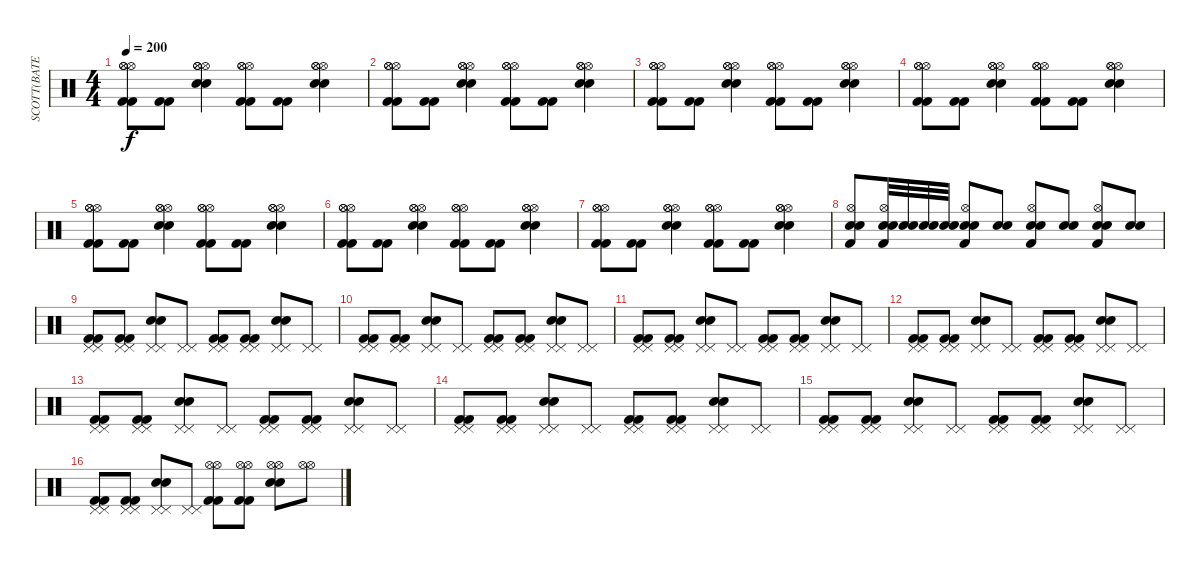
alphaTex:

\track ("SCOTT(BATERIA)" "SCOTT(BATE") {instrument percussion}
\staff {score}
\articulation defaults
\ts (4 4)
\tempo 200
\clef neutral
\ks c
("Kick (hit) 2" "Kick (hit) 2" "Hi-Hat (open)" "Hi-Hat (open)" "Hi-Hat (open)").8{dy f} ("Kick (hit) 2" "Kick (hit) 2").8 ("Snare (hit) 2" "Snare (hit) 2" "Hi-Hat (open)" "Hi-Hat (open)" "Hi-Hat (open)").4 ("Kick (hit) 2" "Kick (hit) 2" "Hi-Hat (open)" "Hi-Hat (open)" "Hi-Hat (open)").8 ("Kick (hit) 2" "Kick (hit) 2").8 ("Snare (hit) 2" "Snare (hit) 2" "Hi-Hat (open)" "Hi-Hat (open)" "Hi-Hat (open)").4 |
("Kick (hit) 2" "Kick (hit) 2" "Hi-Hat (open)" "Hi-Hat (open)" "Hi-Hat (open)").8 ("Kick (hit) 2" "Kick (hit) 2").8 ("Snare (hit) 2" "Snare (hit) 2" "Hi-Hat (open)" "Hi-Hat (open)" "Hi-Hat (open)").4 ("Kick (hit) 2" "Kick (hit) 2" "Hi-Hat (open)" "Hi-Hat (open)" "Hi-Hat (open)").8 ("Kick (hit) 2" "Kick (hit) 2").8 ("Snare (hit) 2" "Snare (hit) 2" "Hi-Hat (open)" "Hi-Hat (open)" "Hi-Hat (open)").4 |
("Kick (hit) 2" "Kick (hit) 2" "Hi-Hat (open)" "Hi-Hat (open)" "Hi-Hat (open)").8 ("Kick (hit) 2" "Kick (hit) 2").8 ("Snare (hit) 2" "Snare (hit) 2" "Hi-Hat (open)" "Hi-Hat (open)" "Hi-Hat (open)").4 ("Kick (hit) 2" "Kick (hit) 2" "Hi-Hat (open)" "Hi-Hat (open)" "Hi-Hat (open)").8 ("Kick (hit) 2" "Kick (hit) 2").8 ("Snare (hit) 2" "Snare (hit) 2" "Hi-Hat (open)" "Hi-Hat (open)" "Hi-Hat (open)").4 |
("Kick (hit) 2" "Kick (hit) 2" "Hi-Hat (open)" "Hi-Hat (open)" "Hi-Hat (open)").8 ("Kick (hit) 2" "Kick (hit) 2").8 ("Snare (hit) 2" "Snare (hit) 2" "Hi-Hat (open)" "Hi-Hat (open)" "Hi-Hat (open)").4 ("Kick (hit) 2" "Kick (hit) 2" "Hi-Hat (open)" "Hi-Hat (open)" "Hi-Hat (open)").8 ("Kick (hit) 2" "Kick (hit) 2").8 ("Snare (hit) 2" "Snare (hit) 2" "Hi-Hat (open)" "Hi-Hat (open)" "Hi-Hat (open)").4 |
("Kick (hit) 2" "Kick (hit) 2" "Hi-Hat (open)" "Hi-Hat (open)" "Hi-Hat (open)").8 ("Kick (hit) 2" "Kick (hit) 2").8 ("Snare (hit) 2" "Snare (hit) 2" "Hi-Hat (open)" "Hi-Hat (open)" "Hi-Hat (open)").4 ("Kick (hit) 2" "Kick (hit) 2" "Hi-Hat (open)" "Hi-Hat (open)" "Hi-Hat (open)").8 ("Kick (hit) 2" "Kick (hit) 2").8 ("Snare (hit) 2" "Snare (hit) 2" "Hi-Hat (open)" "Hi-Hat (open)" "Hi-Hat (open)").4 |
("Kick (hit) 2" "Kick (hit) 2" "Hi-Hat (open)" "Hi-Hat (open)" "Hi-Hat (open)").8 ("Kick (hit) 2" "Kick (hit) 2").8 ("Snare (hit) 2" "Snare (hit) 2" "Hi-Hat (open)" "Hi-Hat (open)" "Hi-Hat (open)").4 ("Kick (hit) 2" "Kick (hit) 2" "Hi-Hat (open)" "Hi-Hat (open)" "Hi-Hat (open)").8 ("Kick (hit) 2" "Kick (hit) 2").8 ("Snare (hit) 2" "Snare (hit) 2" "Hi-Hat (open)" "Hi-Hat (open)" "Hi-Hat (open)").4 |
("Kick (hit) 2" "Kick (hit) 2" "Hi-Hat (open)" "Hi-Hat (open)" "Hi-Hat (open)").8 ("Kick (hit) 2" "Kick (hit) 2").8 ("Snare (hit) 2" "Snare (hit) 2" "Hi-Hat (open)" "Hi-Hat (open)" "Hi-Hat (open)").4 ("Kick (hit) 2" "Kick (hit) 2" "Hi-Hat (open)" "Hi-Hat (open)" "Hi-Hat (open)").8 ("Kick (hit) 2" "Kick (hit) 2").8 ("Snare (hit) 2" "Snare (hit) 2" "Hi-Hat (open)" "Hi-Hat (open)" "Hi-Hat (open)").4 |
("Snare (hit) 2" "Snare (hit) 2" "Kick (hit) 2" "Hi-Hat (open)").8 ("Snare (hit) 2" "Snare (hit) 2" "Kick (hit) 2" "Hi-Hat (open)").32 ("Snare (hit) 2" "Snare (hit) 2").32 ("Snare (hit) 2" "Snare (hit) 2").32 ("Snare (hit) 2" "Snare (hit) 2").32 ("Snare (hit) 2" "Snare (hit) 2" "Kick (hit) 2" "Hi-Hat (open)").8 ("Snare (hit) 2" "Snare (hit) 2").8 ("Snare (hit) 2" "Snare (hit) 2" "Kick (hit) 2" "Hi-Hat (open)").8 ("Snare (hit) 2" "Snare (hit) 2").8 ("Snare (hit) 2" "Snare (hit) 2" "Kick (hit) 2" "Hi-Hat (open)").8 ("Snare (hit) 2" "Snare (hit) 2").8 |
("Kick (hit) 2" "Kick (hit) 2" "Pedal Hi-Hat (hit)" "Pedal Hi-Hat (hit)").8 ("Kick (hit) 2" "Kick (hit) 2" "Pedal Hi-Hat (hit)" "Pedal Hi-Hat (hit)").8 ("Snare (hit) 2" "Snare (hit) 2" "Pedal Hi-Hat (hit)" "Pedal Hi-Hat (hit)").8 ("Pedal Hi-Hat (hit)" "Pedal Hi-Hat (hit)").8 ("Kick (hit) 2" "Kick (hit) 2" "Pedal Hi-Hat (hit)" "Pedal Hi-Hat (hit)").8 ("Kick (hit) 2" "Kick (hit) 2" "Pedal Hi-Hat (hit)" "Pedal Hi-Hat (hit)").8 ("Snare (hit) 2" "Snare (hit) 2" "Pedal Hi-Hat (hit)" "Pedal Hi-Hat (hit)").8 ("Pedal Hi-Hat (hit)" "Pedal Hi-Hat (hit)").8 |
("Kick (hit) 2" "Kick (hit) 2" "Pedal Hi-Hat (hit)" "Pedal Hi-Hat (hit)").8 ("Kick (hit) 2" "Kick (hit) 2" "Pedal Hi-Hat (hit)" "Pedal Hi-Hat (hit)").8 ("Snare (hit) 2" "Snare (hit) 2" "Pedal Hi-Hat (hit)" "Pedal Hi-Hat (hit)").8 ("Pedal Hi-Hat (hit)" "Pedal Hi-Hat (hit)").8 ("Kick (hit) 2" "Kick (hit) 2" "Pedal Hi-Hat (hit)" "Pedal Hi-Hat (hit)").8 ("Kick (hit) 2" "Kick (hit) 2" "Pedal Hi-Hat (hit)" "Pedal Hi-Hat (hit)").8 ("Snare (hit) 2" "Snare (hit) 2" "Pedal Hi-Hat (hit)" "Pedal Hi-Hat (hit)").8 ("Pedal Hi-Hat (hit)" "Pedal Hi-Hat (hit)").8 |
("Kick (hit) 2" "Kick (hit) 2" "Pedal Hi-Hat (hit)" "Pedal Hi-Hat (hit)").8 ("Kick (hit) 2" "Kick (hit) 2" "Pedal Hi-Hat (hit)" "Pedal Hi-Hat (hit)").8 ("Snare (hit) 2" "Snare (hit) 2" "Pedal Hi-Hat (hit)" "Pedal Hi-Hat (hit)").8 ("Pedal Hi-Hat (hit)" "Pedal Hi-Hat (hit)").8 ("Kick (hit) 2" "Kick (hit) 2" "Pedal Hi-Hat (hit)" "Pedal Hi-Hat (hit)").8 ("Kick (hit) 2" "Kick (hit) 2" "Pedal Hi-Hat (hit)" "Pedal Hi-Hat (hit)").8 ("Snare (hit) 2" "Snare (hit) 2" "Pedal Hi-Hat (hit)" "Pedal Hi-Hat (hit)").8 ("Pedal Hi-Hat (hit)" "Pedal Hi-Hat (hit)").8 |
("Kick (hit) 2" "Kick (hit) 2" "Pedal Hi-Hat (hit)" "Pedal Hi-Hat (hit)").8 ("Kick (hit) 2" "Kick (hit) 2" "Pedal Hi-Hat (hit)" "Pedal Hi-Hat (hit)").8 ("Snare (hit) 2" "Snare (hit) 2" "Pedal Hi-Hat (hit)" "Pedal Hi-Hat (hit)").8 ("Pedal Hi-Hat (hit)" "Pedal Hi-Hat (hit)").8 ("Kick (hit) 2" "Kick (hit) 2" "Pedal Hi-Hat (hit)" "Pedal Hi-Hat (hit)").8 ("Kick (hit) 2" "Kick (hit) 2" "Pedal Hi-Hat (hit)" "Pedal Hi-Hat (hit)").8 ("Snare (hit) 2" "Snare (hit) 2" "Pedal Hi-Hat (hit)" "Pedal Hi-Hat (hit)").8 ("Pedal Hi-Hat (hit)" "Pedal Hi-Hat (hit)").8 |
("Kick (hit) 2" "Kick (hit) 2" "Pedal Hi-Hat (hit)" "Pedal Hi-Hat (hit)").8 ("Kick (hit) 2" "Kick (hit) 2" "Pedal Hi-Hat (hit)" "Pedal Hi-Hat (hit)").8 ("Snare (hit) 2" "Snare (hit) 2" "Pedal Hi-Hat (hit)" "Pedal Hi-Hat (hit)").8 ("Pedal Hi-Hat (hit)" "Pedal Hi-Hat (hit)").8 ("Kick (hit) 2" "Kick (hit) 2" "Pedal Hi-Hat (hit)" "Pedal Hi-Hat (hit)").8 ("Kick (hit) 2" "Kick (hit) 2" "Pedal Hi-Hat (hit)" "Pedal Hi-Hat (hit)").8 ("Snare (hit) 2" "Snare (hit) 2" "Pedal Hi-Hat (hit)" "Pedal Hi-Hat (hit)").8 ("Pedal Hi-Hat (hit)" "Pedal Hi-Hat (hit)").8 |
("Kick (hit) 2" "Kick (hit) 2" "Pedal Hi-Hat (hit)" "Pedal Hi-Hat (hit)").8 ("Kick (hit) 2" "Kick (hit) 2" "Pedal Hi-Hat (hit)" "Pedal Hi-Hat (hit)").8 ("Snare (hit) 2" "Snare (hit) 2" "Pedal Hi-Hat (hit)" "Pedal Hi-Hat (hit)").8 ("Pedal Hi-Hat (hit)" "Pedal Hi-Hat (hit)").8 ("Kick (hit) 2" "Kick (hit) 2" "Pedal Hi-Hat (hit)" "Pedal Hi-Hat (hit)").8 ("Kick (hit) 2" "Kick (hit) 2" "Pedal Hi-Hat (hit)" "Pedal Hi-Hat (hit)").8 ("Snare (hit) 2" "Snare (hit) 2" "Pedal Hi-Hat (hit)" "Pedal Hi-Hat (hit)").8 ("Pedal Hi-Hat (hit)" "Pedal Hi-Hat (hit)").8 |
("Kick (hit) 2" "Kick (hit) 2" "Pedal Hi-Hat (hit)" "Pedal Hi-Hat (hit)").8 ("Kick (hit) 2" "Kick (hit) 2" "Pedal Hi-Hat (hit)" "Pedal Hi-Hat (hit)").8 ("Snare (hit) 2" "Snare (hit) 2" "Pedal Hi-Hat (hit)" "Pedal Hi-Hat (hit)").8 ("Pedal Hi-Hat (hit)" "Pedal Hi-Hat (hit)").8 ("Kick (hit) 2" "Kick (hit) 2" "Pedal Hi-Hat (hit)" "Pedal Hi-Hat (hit)").8 ("Kick (hit) 2" "Kick (hit) 2" "Pedal Hi-Hat (hit)" "Pedal Hi-Hat (hit)").8 ("Snare (hit) 2" "Snare (hit) 2" "Pedal Hi-Hat (hit)" "Pedal Hi-Hat (hit)").8 ("Pedal Hi-Hat (hit)" "Pedal Hi-Hat (hit)").8 |
("Kick (hit) 2" "Kick (hit) 2" "Pedal Hi-Hat (hit)" "Pedal Hi-Hat (hit)").8 ("Kick (hit) 2" "Kick (hit) 2" "Pedal Hi-Hat (hit)" "Pedal Hi-Hat (hit)").8 ("Snare (hit) 2" "Snare (hit) 2" "Pedal Hi-Hat (hit)" "Pedal Hi-Hat (hit)").8 ("Pedal Hi-Hat (hit)" "Pedal Hi-Hat (hit)").8 ("Kick (hit) 2" "Kick (hit) 2" "Hi-Hat (open)" "Hi-Hat (open)").8 ("Kick (hit) 2" "Kick (hit) 2" "Hi-Hat (open)" "Hi-Hat (open)").8 ("Snare (hit) 2" "Snare (hit) 2" "Hi-Hat (open)" "Hi-Hat (open)").8 ("Hi-Hat (open)" "Hi-Hat (open)").8
